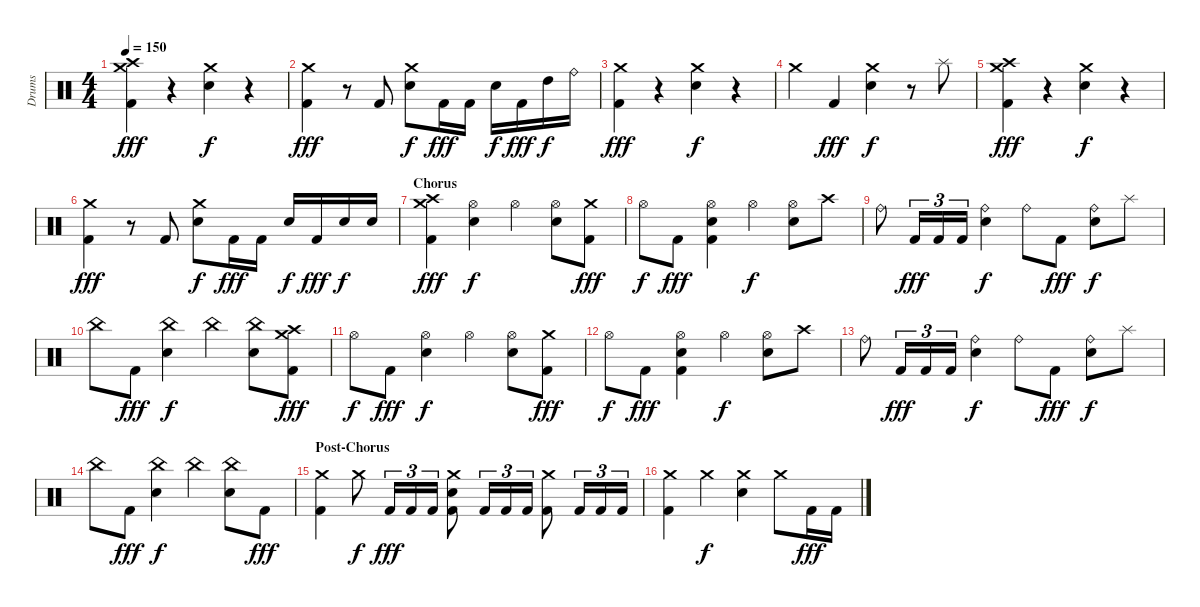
\track ("Drums" "Drums") {instrument percussion}
\staff {score}
\articulation defaults
\ts (4 4)
\tempo 150
\clef neutral
\ks c
("Crash medium (hit)" "Crash high (hit)" "Kick (hit) 2").4{dy fff} r.4 ("Crash medium (hit)" "Snare (hit) 2").4{dy f} r.4 |
("Crash medium (hit)" "Kick (hit) 2").4{dy fff} r.8 "Kick (hit) 2".8 ("Crash medium (hit)" "Snare (hit) 2").8{dy f} "Kick (hit) 2".16{dy fff} "Kick (hit) 2".16 "Snare (hit) 2".16{dy f} "Kick (hit) 2".16{dy fff} "High Tom (hit)".16{dy f} "Ride (bell)".16 |
("Crash medium (hit)" "Kick (hit) 2").4{dy fff} r.4 ("Crash medium (hit)" "Snare (hit) 2").4{dy f} r.4 |
"Crash medium (hit)".4 "Kick (hit) 2".4{dy fff} ("Crash medium (hit)" "Snare (hit) 2").4{dy f} r.8 "Splash (hit)".8 |
("Crash medium (hit)" "Crash high (hit)" "Kick (hit) 2").4{dy fff} r.4 ("Crash medium (hit)" "Snare (hit) 2").4{dy f} r.4 |
("Crash medium (hit)" "Kick (hit) 2").4{dy fff} r.8 "Kick (hit) 2".8 ("Crash medium (hit)" "Snare (hit) 2").8{dy f} "Kick (hit) 2".16{dy fff} "Kick (hit) 2".16 "Snare (hit) 2".16{dy f} "Kick (hit) 2".16{dy fff} "Snare (hit) 2".16{dy f} "Snare (hit) 2".16 |
\section ("" "Chorus")
("Crash medium (hit)" "Crash high (hit)" "Kick (hit) 2").4{dy fff} ("Hi-Hat (open)" "Snare (hit) 2").4{dy f} "Hi-Hat (open)".4 ("Hi-Hat (open)" "Snare (hit) 2").8 ("Crash medium (hit)" "Kick (hit) 2").8{dy fff} |
"Hi-Hat (open)".8{dy f} "Kick (hit) 2".8{dy fff} ("Hi-Hat (open)" "Snare (hit) 2" "Kick (hit) 2").4 "Hi-Hat (open)".4{dy f} ("Hi-Hat (open)" "Snare (hit) 2").8 "Crash high (hit)".8 |
"Ride (bell)".8 "Kick (hit) 2".16{tu (3 2) dy fff} "Kick (hit) 2".16{tu (3 2)} "Kick (hit) 2".16{tu (3 2)} ("Ride (bell)" "Snare (hit) 2").4{dy f} "Ride (bell)".8 "Kick (hit) 2".8{dy fff} ("Ride (bell)" "Snare (hit) 2").8{dy f} "Splash (hit)".8 |
"China (hit)".8 "Kick (hit) 2".8{dy fff} ("China (hit)" "Snare (hit) 2").4{dy f} "China (hit)".4 ("China (hit)" "Snare (hit) 2").8 ("Crash medium (hit)" "Crash high (hit)" "Kick (hit) 2").8{dy fff} |
"Hi-Hat (open)".8{dy f} "Kick (hit) 2".8{dy fff} ("Hi-Hat (open)" "Snare (hit) 2").4{dy f} "Hi-Hat (open)".4 ("Hi-Hat (open)" "Snare (hit) 2").8 ("Crash medium (hit)" "Kick (hit) 2").8{dy fff} |
"Hi-Hat (open)".8{dy f} "Kick (hit) 2".8{dy fff} ("Hi-Hat (open)" "Snare (hit) 2" "Kick (hit) 2").4 "Hi-Hat (open)".4{dy f} ("Hi-Hat (open)" "Snare (hit) 2").8 "Crash high (hit)".8 |
"Ride (bell)".8 "Kick (hit) 2".16{tu (3 2) dy fff} "Kick (hit) 2".16{tu (3 2)} "Kick (hit) 2".16{tu (3 2)} ("Ride (bell)" "Snare (hit) 2").4{dy f} "Ride (bell)".8 "Kick (hit) 2".8{dy fff} ("Ride (bell)" "Snare (hit) 2").8{dy f} "Splash (hit)".8 |
"China (hit)".8 "Kick (hit) 2".8{dy fff} ("China (hit)" "Snare (hit) 2").4{dy f} "China (hit)".4 ("China (hit)" "Snare (hit) 2").8 "Kick (hit) 2".8{dy fff} |
\section ("" "Post-Chorus")
("Crash medium (hit)" "Kick (hit) 2").4 "Crash medium (hit)".8{dy f} "Kick (hit) 2".16{tu (3 2) dy fff} "Kick (hit) 2".16{tu (3 2)} "Kick (hit) 2".16{tu (3 2)} ("Crash medium (hit)" "Snare (hit) 2" "Kick (hit) 2").8 "Kick (hit) 2".16{tu (3 2)} "Kick (hit) 2".16{tu (3 2)} "Kick (hit) 2".16{tu (3 2)} ("Crash medium (hit)" "Kick (hit) 2").8 "Kick (hit) 2".16{tu (3 2)} "Kick (hit) 2".16{tu (3 2)} "Kick (hit) 2".16{tu (3 2)} |
("Crash medium (hit)" "Kick (hit) 2").4 "Crash medium (hit)".4{dy f} ("Crash medium (hit)" "Snare (hit) 2").4 "Crash medium (hit)".8 "Kick (hit) 2".16{dy fff} "Kick (hit) 2".16
